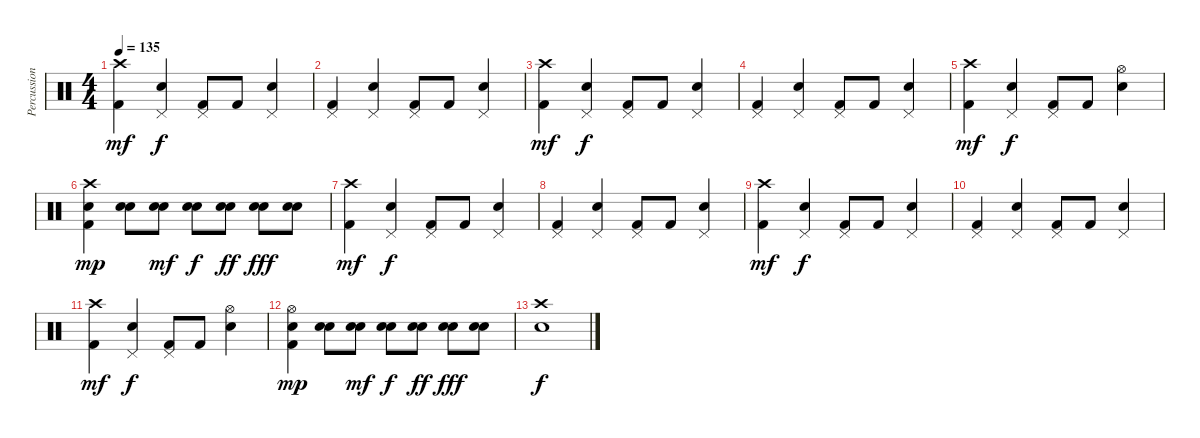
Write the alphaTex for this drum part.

\track ("Percussion" "Percussion") {instrument percussion}
\staff {score}
\articulation defaults
\ts (4 4)
\tempo 135
\clef neutral
\ks c
("Crash high (hit)" "Kick (hit) 2").4{dy mf} ("Pedal Hi-Hat (hit)" "Snare (hit) 2").4{dy f} ("Pedal Hi-Hat (hit)" "Kick (hit) 2").8 "Kick (hit) 2".8 ("Pedal Hi-Hat (hit)" "Snare (hit) 2").4 |
("Pedal Hi-Hat (hit)" "Kick (hit) 2").4 ("Pedal Hi-Hat (hit)" "Snare (hit) 2").4 ("Pedal Hi-Hat (hit)" "Kick (hit) 2").8 "Kick (hit) 2".8 ("Pedal Hi-Hat (hit)" "Snare (hit) 2").4 |
("Crash high (hit)" "Kick (hit) 2").4{dy mf} ("Pedal Hi-Hat (hit)" "Snare (hit) 2").4{dy f} ("Pedal Hi-Hat (hit)" "Kick (hit) 2").8 "Kick (hit) 2".8 ("Pedal Hi-Hat (hit)" "Snare (hit) 2").4 |
("Pedal Hi-Hat (hit)" "Kick (hit) 2").4 ("Pedal Hi-Hat (hit)" "Snare (hit) 2").4 ("Pedal Hi-Hat (hit)" "Kick (hit) 2").8 "Kick (hit) 2".8 ("Pedal Hi-Hat (hit)" "Snare (hit) 2").4 |
("Crash high (hit)" "Kick (hit) 2").4{dy mf} ("Pedal Hi-Hat (hit)" "Snare (hit) 2").4{dy f} ("Pedal Hi-Hat (hit)" "Kick (hit) 2").8 "Kick (hit) 2".8 ("Hi-Hat (open)" "Snare (hit) 2").4 |
("Crash high (hit)" "Snare (hit) 2" "Kick (hit) 2").4{dy mp} ("Snare (hit) 2" "Snare (hit) 2").8 ("Snare (hit) 2" "Snare (hit) 2").8{dy mf} ("Snare (hit) 2" "Snare (hit) 2").8{dy f} ("Snare (hit) 2" "Snare (hit) 2").8{dy ff} ("Snare (hit) 2" "Snare (hit) 2").8{dy fff} ("Snare (hit) 2" "Snare (hit) 2").8 |
("Crash high (hit)" "Kick (hit) 2").4{dy mf} ("Pedal Hi-Hat (hit)" "Snare (hit) 2").4{dy f} ("Pedal Hi-Hat (hit)" "Kick (hit) 2").8 "Kick (hit) 2".8 ("Pedal Hi-Hat (hit)" "Snare (hit) 2").4 |
("Pedal Hi-Hat (hit)" "Kick (hit) 2").4 ("Pedal Hi-Hat (hit)" "Snare (hit) 2").4 ("Pedal Hi-Hat (hit)" "Kick (hit) 2").8 "Kick (hit) 2".8 ("Pedal Hi-Hat (hit)" "Snare (hit) 2").4 |
("Crash high (hit)" "Kick (hit) 2").4{dy mf} ("Pedal Hi-Hat (hit)" "Snare (hit) 2").4{dy f} ("Pedal Hi-Hat (hit)" "Kick (hit) 2").8 "Kick (hit) 2".8 ("Pedal Hi-Hat (hit)" "Snare (hit) 2").4 |
("Pedal Hi-Hat (hit)" "Kick (hit) 2").4 ("Pedal Hi-Hat (hit)" "Snare (hit) 2").4 ("Pedal Hi-Hat (hit)" "Kick (hit) 2").8 "Kick (hit) 2".8 ("Pedal Hi-Hat (hit)" "Snare (hit) 2").4 |
("Crash high (hit)" "Kick (hit) 2").4{dy mf} ("Pedal Hi-Hat (hit)" "Snare (hit) 2").4{dy f} ("Pedal Hi-Hat (hit)" "Kick (hit) 2").8 "Kick (hit) 2".8 ("Hi-Hat (open)" "Snare (hit) 2").4 |
("Hi-Hat (open)" "Snare (hit) 2" "Kick (hit) 2").4{dy mp} ("Snare (hit) 2" "Snare (hit) 2").8 ("Snare (hit) 2" "Snare (hit) 2").8{dy mf} ("Snare (hit) 2" "Snare (hit) 2").8{dy f} ("Snare (hit) 2" "Snare (hit) 2").8{dy ff} ("Snare (hit) 2" "Snare (hit) 2").8{dy fff} ("Snare (hit) 2" "Snare (hit) 2").8 |
("Crash high (hit)" "Snare (hit) 2").1{dy f}
